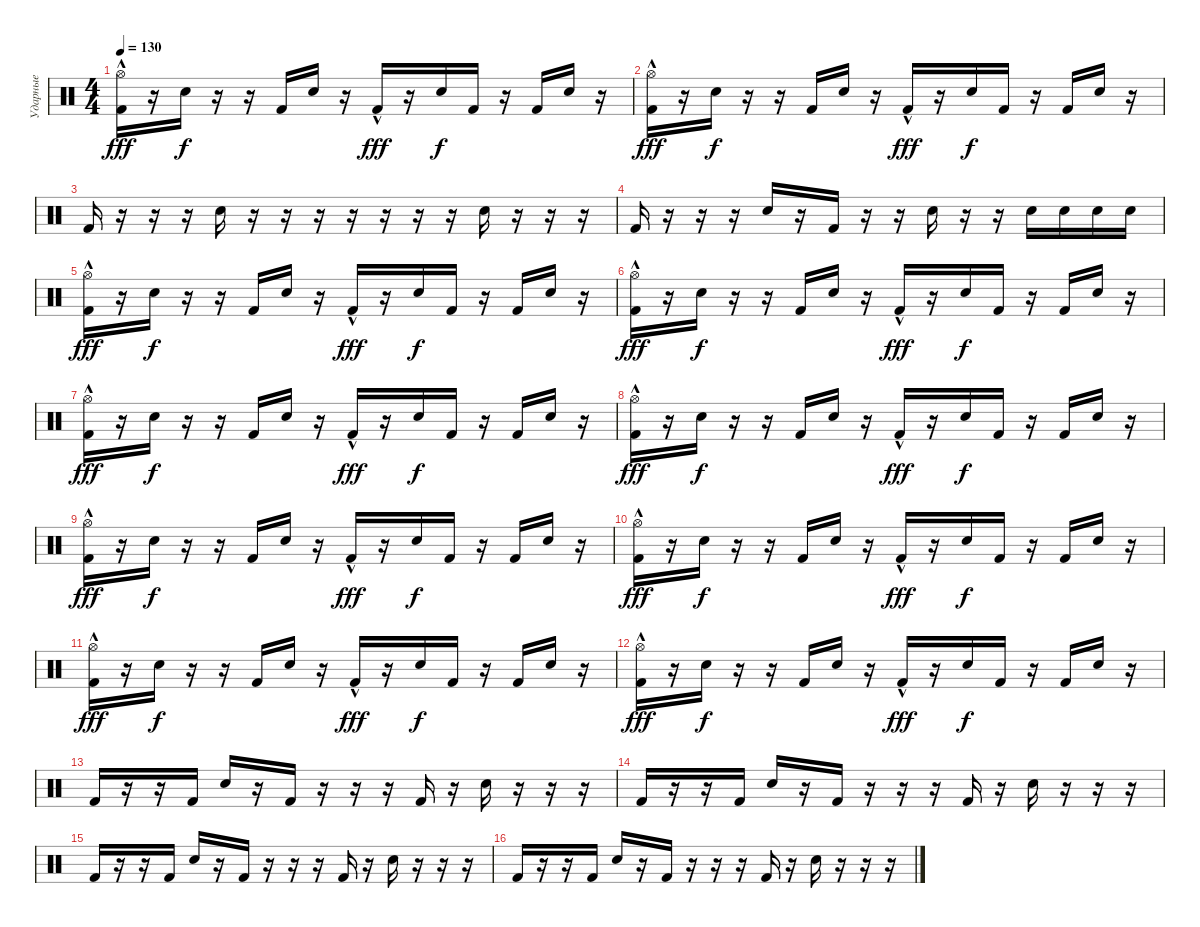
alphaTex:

\track ("Ударные" "Ударные") {instrument percussion}
\staff {score}
\articulation defaults
\ts (4 4)
\tempo 130
\clef neutral
\ks c
("Hi-Hat (open)" "Kick (hit) 2"{hac}).16{dy fff} r.16 "Electric Snare (hit)".16{dy f} r.16 r.16 "Kick (hit) 2".16 "Electric Snare (hit)".16 r.16 "Kick (hit) 2"{hac}.16{dy fff} r.16 "Electric Snare (hit)".16{dy f} "Kick (hit) 2".16 r.16 "Kick (hit) 2".16 "Electric Snare (hit)".16 r.16 |
("Hi-Hat (open)" "Kick (hit) 2"{hac}).16{dy fff} r.16 "Electric Snare (hit)".16{dy f} r.16 r.16 "Kick (hit) 2".16 "Electric Snare (hit)".16 r.16 "Kick (hit) 2"{hac}.16{dy fff} r.16 "Electric Snare (hit)".16{dy f} "Kick (hit) 2".16 r.16 "Kick (hit) 2".16 "Electric Snare (hit)".16 r.16 |
"Kick (hit) 2".16 r.16 r.16 r.16 "Electric Snare (hit)".16 r.16 r.16 r.16 r.16 r.16 r.16 r.16 "Electric Snare (hit)".16 r.16 r.16 r.16 |
"Kick (hit) 2".16 r.16 r.16 r.16 "Electric Snare (hit)".16 r.16 "Kick (hit) 2".16 r.16 r.16 "Electric Snare (hit)".16 r.16 r.16 "Electric Snare (hit)".16 "Electric Snare (hit)".16 "Electric Snare (hit)".16 "Electric Snare (hit)".16 |
("Hi-Hat (open)" "Kick (hit) 2"{hac}).16{dy fff} r.16 "Electric Snare (hit)".16{dy f} r.16 r.16 "Kick (hit) 2".16 "Electric Snare (hit)".16 r.16 "Kick (hit) 2"{hac}.16{dy fff} r.16 "Electric Snare (hit)".16{dy f} "Kick (hit) 2".16 r.16 "Kick (hit) 2".16 "Electric Snare (hit)".16 r.16 |
("Hi-Hat (open)" "Kick (hit) 2"{hac}).16{dy fff} r.16 "Electric Snare (hit)".16{dy f} r.16 r.16 "Kick (hit) 2".16 "Electric Snare (hit)".16 r.16 "Kick (hit) 2"{hac}.16{dy fff} r.16 "Electric Snare (hit)".16{dy f} "Kick (hit) 2".16 r.16 "Kick (hit) 2".16 "Electric Snare (hit)".16 r.16 |
("Hi-Hat (open)" "Kick (hit) 2"{hac}).16{dy fff} r.16 "Electric Snare (hit)".16{dy f} r.16 r.16 "Kick (hit) 2".16 "Electric Snare (hit)".16 r.16 "Kick (hit) 2"{hac}.16{dy fff} r.16 "Electric Snare (hit)".16{dy f} "Kick (hit) 2".16 r.16 "Kick (hit) 2".16 "Electric Snare (hit)".16 r.16 |
("Hi-Hat (open)" "Kick (hit) 2"{hac}).16{dy fff} r.16 "Electric Snare (hit)".16{dy f} r.16 r.16 "Kick (hit) 2".16 "Electric Snare (hit)".16 r.16 "Kick (hit) 2"{hac}.16{dy fff} r.16 "Electric Snare (hit)".16{dy f} "Kick (hit) 2".16 r.16 "Kick (hit) 2".16 "Electric Snare (hit)".16 r.16 |
("Hi-Hat (open)" "Kick (hit) 2"{hac}).16{dy fff} r.16 "Electric Snare (hit)".16{dy f} r.16 r.16 "Kick (hit) 2".16 "Electric Snare (hit)".16 r.16 "Kick (hit) 2"{hac}.16{dy fff} r.16 "Electric Snare (hit)".16{dy f} "Kick (hit) 2".16 r.16 "Kick (hit) 2".16 "Electric Snare (hit)".16 r.16 |
("Hi-Hat (open)" "Kick (hit) 2"{hac}).16{dy fff} r.16 "Electric Snare (hit)".16{dy f} r.16 r.16 "Kick (hit) 2".16 "Electric Snare (hit)".16 r.16 "Kick (hit) 2"{hac}.16{dy fff} r.16 "Electric Snare (hit)".16{dy f} "Kick (hit) 2".16 r.16 "Kick (hit) 2".16 "Electric Snare (hit)".16 r.16 |
("Hi-Hat (open)" "Kick (hit) 2"{hac}).16{dy fff} r.16 "Electric Snare (hit)".16{dy f} r.16 r.16 "Kick (hit) 2".16 "Electric Snare (hit)".16 r.16 "Kick (hit) 2"{hac}.16{dy fff} r.16 "Electric Snare (hit)".16{dy f} "Kick (hit) 2".16 r.16 "Kick (hit) 2".16 "Electric Snare (hit)".16 r.16 |
("Hi-Hat (open)" "Kick (hit) 2"{hac}).16{dy fff} r.16 "Electric Snare (hit)".16{dy f} r.16 r.16 "Kick (hit) 2".16 "Electric Snare (hit)".16 r.16 "Kick (hit) 2"{hac}.16{dy fff} r.16 "Electric Snare (hit)".16{dy f} "Kick (hit) 2".16 r.16 "Kick (hit) 2".16 "Electric Snare (hit)".16 r.16 |
"Kick (hit) 2".16 r.16 r.16 "Kick (hit) 2".16 "Electric Snare (hit)".16 r.16 "Kick (hit) 2".16 r.16 r.16 r.16 "Kick (hit) 2".16 r.16 "Electric Snare (hit)".16 r.16 r.16 r.16 |
"Kick (hit) 2".16 r.16 r.16 "Kick (hit) 2".16 "Electric Snare (hit)".16 r.16 "Kick (hit) 2".16 r.16 r.16 r.16 "Kick (hit) 2".16 r.16 "Electric Snare (hit)".16 r.16 r.16 r.16 |
"Kick (hit) 2".16 r.16 r.16 "Kick (hit) 2".16 "Electric Snare (hit)".16 r.16 "Kick (hit) 2".16 r.16 r.16 r.16 "Kick (hit) 2".16 r.16 "Electric Snare (hit)".16 r.16 r.16 r.16 |
"Kick (hit) 2".16 r.16 r.16 "Kick (hit) 2".16 "Electric Snare (hit)".16 r.16 "Kick (hit) 2".16 r.16 r.16 r.16 "Kick (hit) 2".16 r.16 "Electric Snare (hit)".16 r.16 r.16 r.16
